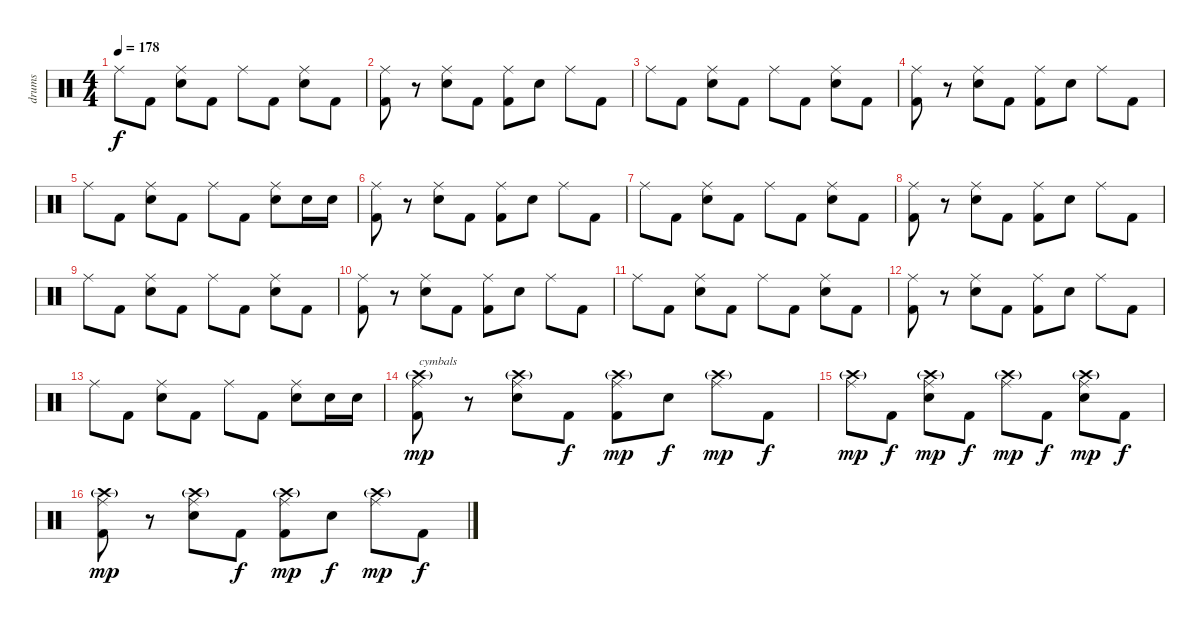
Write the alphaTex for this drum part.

\track ("drums" "drums") {instrument percussion}
\staff {score}
\articulation defaults
\ts (4 4)
\tempo 178
\clef neutral
\ks c "Ride (middle)".8{dy f} "Kick (hit) 2".8
("Ride (middle)" "Snare (hit) 2").8 "Kick (hit) 2".8 "Ride (middle)".8 "Kick (hit) 2".8 ("Ride (middle)" "Snare (hit) 2").8 "Kick (hit) 2".8 |
("Ride (middle)" "Kick (hit) 2").8 r.8 ("Ride (middle)" "Snare (hit) 2").8 "Kick (hit) 2".8 ("Ride (middle)" "Kick (hit) 2").8 "Snare (hit) 2".8 "Ride (middle)".8 "Kick (hit) 2".8 |
"Ride (middle)".8 "Kick (hit) 2".8 ("Ride (middle)" "Snare (hit) 2").8 "Kick (hit) 2".8 "Ride (middle)".8 "Kick (hit) 2".8 ("Ride (middle)" "Snare (hit) 2").8 "Kick (hit) 2".8 |
("Ride (middle)" "Kick (hit) 2").8 r.8 ("Ride (middle)" "Snare (hit) 2").8 "Kick (hit) 2".8 ("Ride (middle)" "Kick (hit) 2").8 "Snare (hit) 2".8 "Ride (middle)".8 "Kick (hit) 2".8 |
"Ride (middle)".8 "Kick (hit) 2".8 ("Ride (middle)" "Snare (hit) 2").8 "Kick (hit) 2".8 "Ride (middle)".8 "Kick (hit) 2".8 ("Ride (middle)" "Snare (hit) 2").8 "Snare (hit) 2".16 "Snare (hit) 2".16 |
("Ride (middle)" "Kick (hit) 2").8 r.8 ("Ride (middle)" "Snare (hit) 2").8 "Kick (hit) 2".8 ("Ride (middle)" "Kick (hit) 2").8 "Snare (hit) 2".8 "Ride (middle)".8 "Kick (hit) 2".8 |
"Ride (middle)".8 "Kick (hit) 2".8 ("Ride (middle)" "Snare (hit) 2").8 "Kick (hit) 2".8 "Ride (middle)".8 "Kick (hit) 2".8 ("Ride (middle)" "Snare (hit) 2").8 "Kick (hit) 2".8 |
("Ride (middle)" "Kick (hit) 2").8 r.8 ("Ride (middle)" "Snare (hit) 2").8 "Kick (hit) 2".8 ("Ride (middle)" "Kick (hit) 2").8 "Snare (hit) 2".8 "Ride (middle)".8 "Kick (hit) 2".8 |
"Ride (middle)".8 "Kick (hit) 2".8 ("Ride (middle)" "Snare (hit) 2").8 "Kick (hit) 2".8 "Ride (middle)".8 "Kick (hit) 2".8 ("Ride (middle)" "Snare (hit) 2").8 "Kick (hit) 2".8 |
("Ride (middle)" "Kick (hit) 2").8 r.8 ("Ride (middle)" "Snare (hit) 2").8 "Kick (hit) 2".8 ("Ride (middle)" "Kick (hit) 2").8 "Snare (hit) 2".8 "Ride (middle)".8 "Kick (hit) 2".8 |
"Ride (middle)".8 "Kick (hit) 2".8 ("Ride (middle)" "Snare (hit) 2").8 "Kick (hit) 2".8 "Ride (middle)".8 "Kick (hit) 2".8 ("Ride (middle)" "Snare (hit) 2").8 "Kick (hit) 2".8 |
("Ride (middle)" "Kick (hit) 2").8 r.8 ("Ride (middle)" "Snare (hit) 2").8 "Kick (hit) 2".8 ("Ride (middle)" "Kick (hit) 2").8 "Snare (hit) 2".8 "Ride (middle)".8 "Kick (hit) 2".8 |
"Ride (middle)".8 "Kick (hit) 2".8 ("Ride (middle)" "Snare (hit) 2").8 "Kick (hit) 2".8 "Ride (middle)".8 "Kick (hit) 2".8 ("Ride (middle)" "Snare (hit) 2").8 "Snare (hit) 2".16 "Snare (hit) 2".16 |
("Ride (middle)" "Crash high (hit)"{g} "Kick (hit) 2").8{txt "cymbals" dy mp} r.8 ("Ride (middle)" "Crash high (hit)"{g} "Snare (hit) 2").8 "Kick (hit) 2".8{dy f} ("Ride (middle)" "Crash high (hit)"{g} "Kick (hit) 2").8{dy mp} "Snare (hit) 2".8{dy f} ("Ride (middle)" "Crash high (hit)"{g}).8{dy mp} "Kick (hit) 2".8{dy f} |
("Ride (middle)" "Crash high (hit)"{g}).8{dy mp} "Kick (hit) 2".8{dy f} ("Ride (middle)" "Crash high (hit)"{g} "Snare (hit) 2").8{dy mp} "Kick (hit) 2".8{dy f} ("Ride (middle)" "Crash high (hit)"{g}).8{dy mp} "Kick (hit) 2".8{dy f} ("Ride (middle)" "Crash high (hit)"{g} "Snare (hit) 2").8{dy mp} "Kick (hit) 2".8{dy f} |
("Ride (middle)" "Crash high (hit)"{g} "Kick (hit) 2").8{dy mp} r.8 ("Ride (middle)" "Crash high (hit)"{g} "Snare (hit) 2").8 "Kick (hit) 2".8{dy f} ("Ride (middle)" "Crash high (hit)"{g} "Kick (hit) 2").8{dy mp} "Snare (hit) 2".8{dy f} ("Ride (middle)" "Crash high (hit)"{g}).8{dy mp} "Kick (hit) 2".8{dy f}
